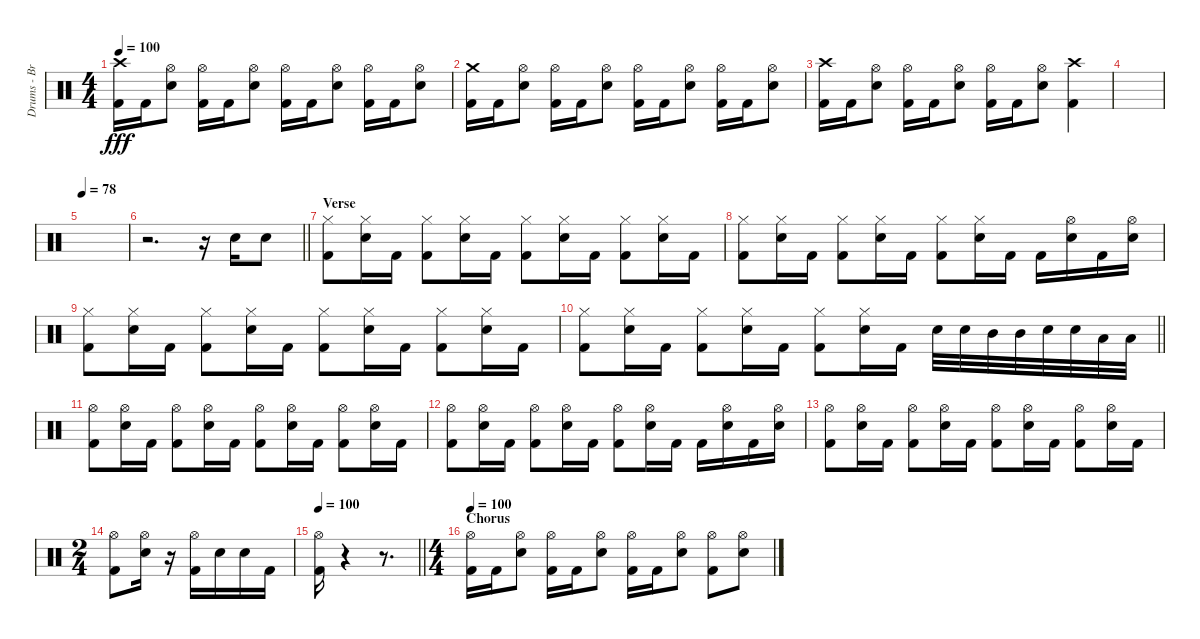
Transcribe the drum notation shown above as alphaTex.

\track ("Drums - Brandon" "Drums - Br") {instrument percussion}
\staff {score}
\articulation defaults
\ts (4 4)
\tempo 100
\clef neutral
\ks c
("Crash high (hit)" "Kick (hit) 2").16{dy fff} "Kick (hit) 2".16 ("Hi-Hat (open)" "Snare (hit) 2").8 ("Hi-Hat (open)" "Kick (hit) 2").16 "Kick (hit) 2".16 ("Hi-Hat (open)" "Snare (hit) 2").8 ("Hi-Hat (open)" "Kick (hit) 2").16 "Kick (hit) 2".16 ("Hi-Hat (open)" "Snare (hit) 2").8 ("Hi-Hat (open)" "Kick (hit) 2").16 "Kick (hit) 2".16 ("Hi-Hat (open)" "Snare (hit) 2").8 |
("Crash medium (hit)" "Kick (hit) 2").16 "Kick (hit) 2".16 ("Hi-Hat (open)" "Snare (hit) 2").8 ("Hi-Hat (open)" "Kick (hit) 2").16 "Kick (hit) 2".16 ("Hi-Hat (open)" "Snare (hit) 2").8 ("Hi-Hat (open)" "Kick (hit) 2").16 "Kick (hit) 2".16 ("Hi-Hat (open)" "Snare (hit) 2").8 ("Hi-Hat (open)" "Kick (hit) 2").16 "Kick (hit) 2".16 ("Hi-Hat (open)" "Snare (hit) 2").8 |
("Crash high (hit)" "Kick (hit) 2").16 "Kick (hit) 2".16 ("Hi-Hat (open)" "Snare (hit) 2").8 ("Hi-Hat (open)" "Kick (hit) 2").16 "Kick (hit) 2".16 ("Hi-Hat (open)" "Snare (hit) 2").8 ("Hi-Hat (open)" "Kick (hit) 2").16 "Kick (hit) 2".16 ("Hi-Hat (open)" "Snare (hit) 2").8 ("Crash high (hit)" "Kick (hit) 2").4 |
|
\tempo 78
|
\barLineRight lightlight
r.2{d} r.16 "Snare (hit) 2".16 "Snare (hit) 2".8 |
\section ("" "Verse")
("Hi-Hat (closed)" "Kick (hit) 2").8 ("Hi-Hat (closed)" "Snare (hit) 2").16 "Kick (hit) 2".16 ("Hi-Hat (closed)" "Kick (hit) 2").8 ("Hi-Hat (closed)" "Snare (hit) 2").16 "Kick (hit) 2".16 ("Hi-Hat (closed)" "Kick (hit) 2").8 ("Hi-Hat (closed)" "Snare (hit) 2").16 "Kick (hit) 2".16 ("Hi-Hat (closed)" "Kick (hit) 2").8 ("Hi-Hat (closed)" "Snare (hit) 2").16 "Kick (hit) 2".16 |
("Hi-Hat (closed)" "Kick (hit) 2").8 ("Hi-Hat (closed)" "Snare (hit) 2").16 "Kick (hit) 2".16 ("Hi-Hat (closed)" "Kick (hit) 2").8 ("Hi-Hat (closed)" "Snare (hit) 2").16 "Kick (hit) 2".16 ("Hi-Hat (closed)" "Kick (hit) 2").8 ("Hi-Hat (closed)" "Snare (hit) 2").16 "Kick (hit) 2".16 "Kick (hit) 2".16 ("Hi-Hat (open)" "Snare (hit) 2").16 "Kick (hit) 2".16 ("Hi-Hat (open)" "Snare (hit) 2").16 |
("Hi-Hat (closed)" "Kick (hit) 2").8 ("Hi-Hat (closed)" "Snare (hit) 2").16 "Kick (hit) 2".16 ("Hi-Hat (closed)" "Kick (hit) 2").8 ("Hi-Hat (closed)" "Snare (hit) 2").16 "Kick (hit) 2".16 ("Hi-Hat (closed)" "Kick (hit) 2").8 ("Hi-Hat (closed)" "Snare (hit) 2").16 "Kick (hit) 2".16 ("Hi-Hat (closed)" "Kick (hit) 2").8 ("Hi-Hat (closed)" "Snare (hit) 2").16 "Kick (hit) 2".16 |
\barLineRight lightlight
("Hi-Hat (closed)" "Kick (hit) 2").8 ("Hi-Hat (closed)" "Snare (hit) 2").16 "Kick (hit) 2".16 ("Hi-Hat (closed)" "Kick (hit) 2").8 ("Hi-Hat (closed)" "Snare (hit) 2").16 "Kick (hit) 2".16 ("Hi-Hat (closed)" "Kick (hit) 2").8 ("Hi-Hat (closed)" "Snare (hit) 2").16 "Kick (hit) 2".16 "Snare (hit) 2".32 "Snare (hit) 2".32 "Mid Tom (hit)".32 "Mid Tom (hit)".32 "Snare (hit) 2".32 "Snare (hit) 2".32 "Low Tom (hit)".32 "Low Tom (hit)".32 |
("Hi-Hat (open)" "Kick (hit) 2").8 ("Hi-Hat (open)" "Snare (hit) 2").16 "Kick (hit) 2".16 ("Hi-Hat (open)" "Kick (hit) 2").8 ("Hi-Hat (open)" "Snare (hit) 2").16 "Kick (hit) 2".16 ("Hi-Hat (open)" "Kick (hit) 2").8 ("Hi-Hat (open)" "Snare (hit) 2").16 "Kick (hit) 2".16 ("Hi-Hat (open)" "Kick (hit) 2").8 ("Hi-Hat (open)" "Snare (hit) 2").16 "Kick (hit) 2".16 |
("Hi-Hat (open)" "Kick (hit) 2").8 ("Hi-Hat (open)" "Snare (hit) 2").16 "Kick (hit) 2".16 ("Hi-Hat (open)" "Kick (hit) 2").8 ("Hi-Hat (open)" "Snare (hit) 2").16 "Kick (hit) 2".16 ("Hi-Hat (open)" "Kick (hit) 2").8 ("Hi-Hat (open)" "Snare (hit) 2").16 "Kick (hit) 2".16 "Kick (hit) 2".16 ("Hi-Hat (open)" "Snare (hit) 2").16 "Kick (hit) 2".16 ("Hi-Hat (open)" "Snare (hit) 2").16 |
("Hi-Hat (open)" "Kick (hit) 2").8 ("Hi-Hat (open)" "Snare (hit) 2").16 "Kick (hit) 2".16 ("Hi-Hat (open)" "Kick (hit) 2").8 ("Hi-Hat (open)" "Snare (hit) 2").16 "Kick (hit) 2".16 ("Hi-Hat (open)" "Kick (hit) 2").8 ("Hi-Hat (open)" "Snare (hit) 2").16 "Kick (hit) 2".16 ("Hi-Hat (open)" "Kick (hit) 2").8 ("Hi-Hat (open)" "Snare (hit) 2").16 "Kick (hit) 2".16 |
\ts (2 4)
("Hi-Hat (open)" "Kick (hit) 2").8 ("Hi-Hat (open)" "Snare (hit) 2").16 r.16 ("Hi-Hat (open)" "Kick (hit) 2").16 "Snare (hit) 2".16 "Snare (hit) 2".16 "Kick (hit) 2".16 |
\tempo 100
\barLineRight lightlight
("Hi-Hat (open)" "Kick (hit) 2").16 r.4 r.8{d} |
\ts (4 4)
\section ("" "Chorus")
\tempo 100
("Hi-Hat (open)" "Kick (hit) 2").16 "Kick (hit) 2".16 ("Hi-Hat (open)" "Snare (hit) 2").8 ("Hi-Hat (open)" "Kick (hit) 2").16 "Kick (hit) 2".16 ("Hi-Hat (open)" "Snare (hit) 2").8 ("Hi-Hat (open)" "Kick (hit) 2").16 "Kick (hit) 2".16 ("Hi-Hat (open)" "Snare (hit) 2").8 ("Hi-Hat (open)" "Kick (hit) 2").8 ("Hi-Hat (open)" "Snare (hit) 2").8
